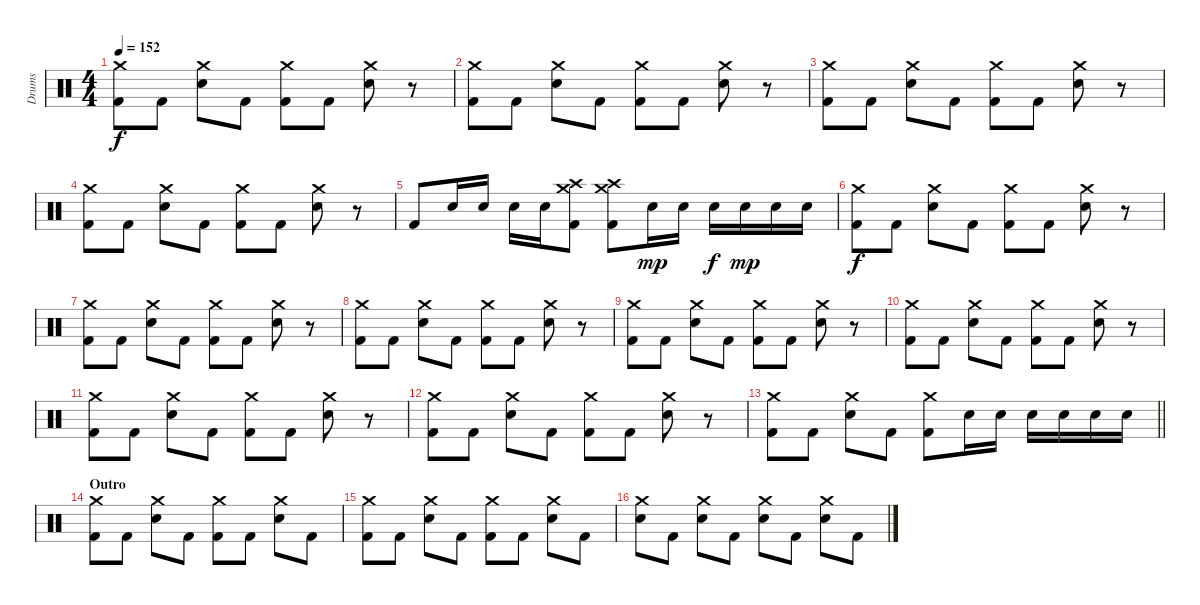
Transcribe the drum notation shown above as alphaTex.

\track ("Drums" "Drums") {instrument percussion}
\staff {score}
\articulation defaults
\ts (4 4)
\tempo 152
\clef neutral
\ks c
("Crash medium (hit)" "Kick (hit) 2").8{dy f} "Kick (hit) 2".8 ("Crash medium (hit)" "Electric Snare (hit)").8 "Kick (hit) 2".8 ("Crash medium (hit)" "Kick (hit) 2").8 "Kick (hit) 2".8 ("Crash medium (hit)" "Electric Snare (hit)").8 r.8 |
("Crash medium (hit)" "Kick (hit) 2").8 "Kick (hit) 2".8 ("Crash medium (hit)" "Electric Snare (hit)").8 "Kick (hit) 2".8 ("Crash medium (hit)" "Kick (hit) 2").8 "Kick (hit) 2".8 ("Crash medium (hit)" "Electric Snare (hit)").8 r.8 |
("Crash medium (hit)" "Kick (hit) 2").8 "Kick (hit) 2".8 ("Crash medium (hit)" "Electric Snare (hit)").8 "Kick (hit) 2".8 ("Crash medium (hit)" "Kick (hit) 2").8 "Kick (hit) 2".8 ("Crash medium (hit)" "Electric Snare (hit)").8 r.8 |
("Crash medium (hit)" "Kick (hit) 2").8 "Kick (hit) 2".8 ("Crash medium (hit)" "Electric Snare (hit)").8 "Kick (hit) 2".8 ("Crash medium (hit)" "Kick (hit) 2").8 "Kick (hit) 2".8 ("Crash medium (hit)" "Electric Snare (hit)").8 r.8 |
"Kick (hit) 2".8 "Electric Snare (hit)".16 "Electric Snare (hit)".16 "Electric Snare (hit)".16 "Electric Snare (hit)".16 ("Crash medium (hit)" "Crash high (hit)" "Kick (hit) 2").8 ("Crash medium (hit)" "Crash high (hit)" "Kick (hit) 2").8 "Electric Snare (hit)".16{dy mp} "Electric Snare (hit)".16 "Electric Snare (hit)".16{dy f} "Electric Snare (hit)".16{dy mp} "Electric Snare (hit)".16 "Electric Snare (hit)".16 |
("Crash medium (hit)" "Kick (hit) 2").8{dy f} "Kick (hit) 2".8 ("Crash medium (hit)" "Electric Snare (hit)").8 "Kick (hit) 2".8 ("Crash medium (hit)" "Kick (hit) 2").8 "Kick (hit) 2".8 ("Crash medium (hit)" "Electric Snare (hit)").8 r.8 |
("Crash medium (hit)" "Kick (hit) 2").8 "Kick (hit) 2".8 ("Crash medium (hit)" "Electric Snare (hit)").8 "Kick (hit) 2".8 ("Crash medium (hit)" "Kick (hit) 2").8 "Kick (hit) 2".8 ("Crash medium (hit)" "Electric Snare (hit)").8 r.8 |
("Crash medium (hit)" "Kick (hit) 2").8 "Kick (hit) 2".8 ("Crash medium (hit)" "Electric Snare (hit)").8 "Kick (hit) 2".8 ("Crash medium (hit)" "Kick (hit) 2").8 "Kick (hit) 2".8 ("Crash medium (hit)" "Electric Snare (hit)").8 r.8 |
("Crash medium (hit)" "Kick (hit) 2").8 "Kick (hit) 2".8 ("Crash medium (hit)" "Electric Snare (hit)").8 "Kick (hit) 2".8 ("Crash medium (hit)" "Kick (hit) 2").8 "Kick (hit) 2".8 ("Crash medium (hit)" "Electric Snare (hit)").8 r.8 |
("Crash medium (hit)" "Kick (hit) 2").8 "Kick (hit) 2".8 ("Crash medium (hit)" "Electric Snare (hit)").8 "Kick (hit) 2".8 ("Crash medium (hit)" "Kick (hit) 2").8 "Kick (hit) 2".8 ("Crash medium (hit)" "Electric Snare (hit)").8 r.8 |
("Crash medium (hit)" "Kick (hit) 2").8 "Kick (hit) 2".8 ("Crash medium (hit)" "Electric Snare (hit)").8 "Kick (hit) 2".8 ("Crash medium (hit)" "Kick (hit) 2").8 "Kick (hit) 2".8 ("Crash medium (hit)" "Electric Snare (hit)").8 r.8 |
("Crash medium (hit)" "Kick (hit) 2").8 "Kick (hit) 2".8 ("Crash medium (hit)" "Electric Snare (hit)").8 "Kick (hit) 2".8 ("Crash medium (hit)" "Kick (hit) 2").8 "Kick (hit) 2".8 ("Crash medium (hit)" "Electric Snare (hit)").8 r.8 |
\barLineRight lightlight
("Crash medium (hit)" "Kick (hit) 2").8 "Kick (hit) 2".8 ("Crash medium (hit)" "Electric Snare (hit)").8 "Kick (hit) 2".8 ("Crash medium (hit)" "Kick (hit) 2").8 "Electric Snare (hit)".16 "Electric Snare (hit)".16 "Electric Snare (hit)".16 "Electric Snare (hit)".16 "Electric Snare (hit)".16 "Electric Snare (hit)".16 |
\section ("" "Outro")
("Crash medium (hit)" "Kick (hit) 2").8 "Kick (hit) 2".8 ("Crash medium (hit)" "Electric Snare (hit)").8 "Kick (hit) 2".8 ("Crash medium (hit)" "Kick (hit) 2").8 "Kick (hit) 2".8 ("Crash medium (hit)" "Electric Snare (hit)").8 "Kick (hit) 2".8 |
("Crash medium (hit)" "Kick (hit) 2").8 "Kick (hit) 2".8 ("Crash medium (hit)" "Electric Snare (hit)").8 "Kick (hit) 2".8 ("Crash medium (hit)" "Kick (hit) 2").8 "Kick (hit) 2".8 ("Crash medium (hit)" "Electric Snare (hit)").8 "Kick (hit) 2".8 |
("Crash medium (hit)" "Electric Snare (hit)").8 "Kick (hit) 2".8 ("Crash medium (hit)" "Electric Snare (hit)").8 "Kick (hit) 2".8 ("Crash medium (hit)" "Electric Snare (hit)").8 "Kick (hit) 2".8 ("Crash medium (hit)" "Electric Snare (hit)").8 "Kick (hit) 2".8
